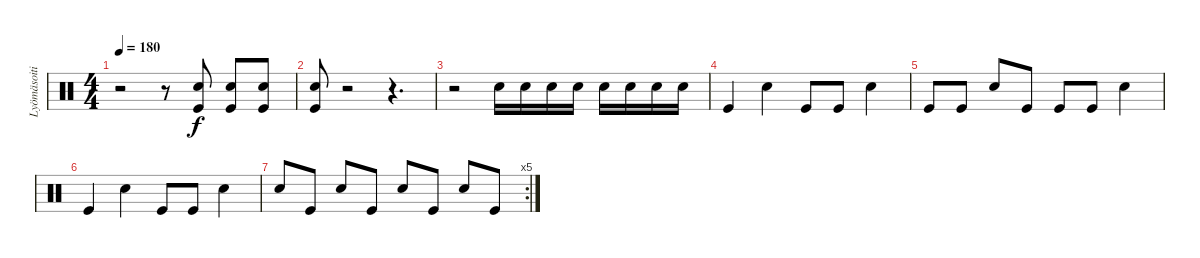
\track ("Lyömäsoitin" "Lyömäsoiti") {instrument percussion}
\staff {score}
\articulation defaults
\ts (4 4)
\tempo 180
\clef neutral
\ks c
r.2{dy f} r.8 ("Snare (hit) 2" "Kick (hit)").8 ("Snare (hit) 2" "Kick (hit)").8 ("Snare (hit) 2" "Kick (hit)").8 |
("Snare (hit) 2" "Kick (hit)").8 r.2 r.4{d} |
r.2 "Snare (hit) 2".16 "Snare (hit) 2".16 "Snare (hit) 2".16 "Snare (hit) 2".16 "Snare (hit) 2".16 "Snare (hit) 2".16 "Snare (hit) 2".16 "Snare (hit) 2".16 |
"Kick (hit)".4 "Snare (hit) 2".4 "Kick (hit)".8 "Kick (hit)".8 "Snare (hit) 2".4 |
"Kick (hit)".8 "Kick (hit)".8 "Snare (hit) 2".8 "Kick (hit)".8 "Kick (hit)".8 "Kick (hit)".8 "Snare (hit) 2".4 |
"Kick (hit)".4 "Snare (hit) 2".4 "Kick (hit)".8 "Kick (hit)".8 "Snare (hit) 2".4 |
\rc 5 "Snare (hit) 2".8 "Kick (hit)".8 "Snare (hit) 2".8 "Kick (hit)".8 "Snare (hit) 2".8 "Kick (hit)".8 "Snare (hit) 2".8 "Kick (hit)".8
